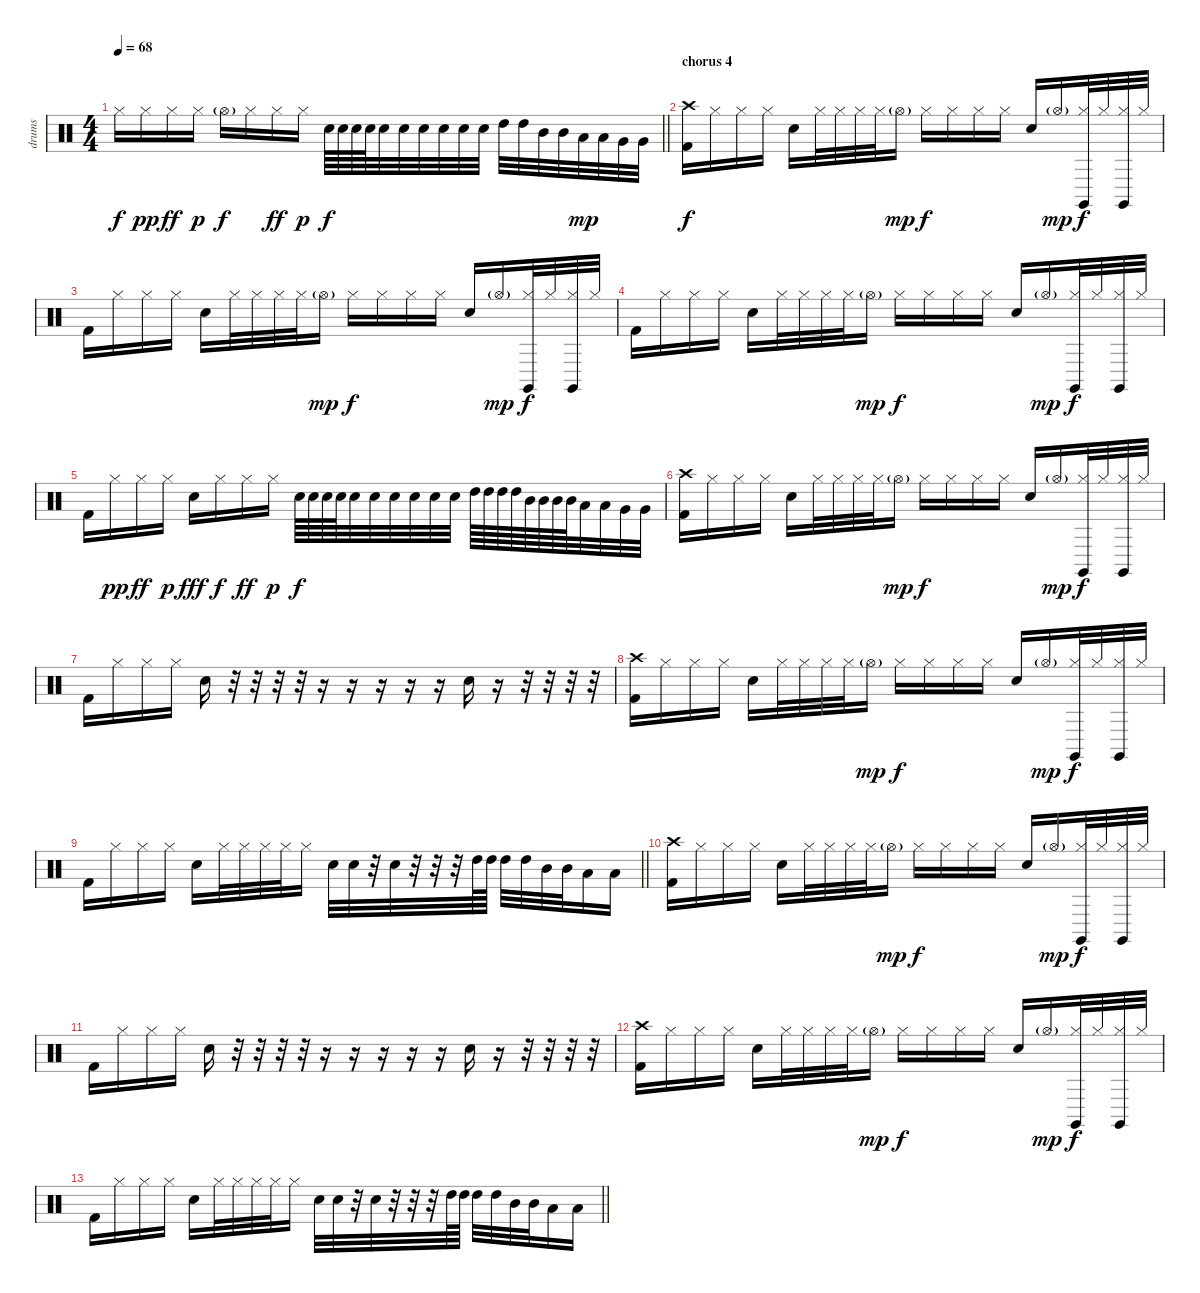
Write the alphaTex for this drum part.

\track ("drums" "drums") {instrument percussion}
\staff {score}
\articulation defaults
\ts (4 4)
\tempo 68
\clef neutral
\barLineRight lightlight
\ks c "Hi-Hat (closed)".16{dy f} "Hi-Hat (closed)".16{dy pp} "Hi-Hat (closed)".16{dy ff} "Hi-Hat (closed)".16{dy p} "Hi-Hat (open)"{g}.16{dy f} "Hi-Hat (closed)".16 "Hi-Hat (closed)".16{dy ff} "Hi-Hat (closed)".16{dy p} "Electric Snare (hit)".64{dy f} "Electric Snare (hit)".64 "Electric Snare (hit)".64 "Electric Snare (hit)".64 "Electric Snare (hit)".32 "Electric Snare (hit)".32 "Electric Snare (hit)".32 "Electric Snare (hit)".32 "Electric Snare (hit)".32 "Electric Snare (hit)".32 "High Tom (hit)".32 "High Tom (hit)".32 "Mid Tom (hit)".32 "Mid Tom (hit)".32 "Low Tom (hit)".32{dy mp} "Low Tom (hit)".32 "Very Low Tom (hit)".32 "Very Low Tom (hit)".32
|
\section ("" "chorus 4 ")
("Kick (hit) 2" "Crash high (hit)").16{dy f} "Hi-Hat (closed)".16 "Hi-Hat (closed)".16 "Hi-Hat (closed)".16 "Electric Snare (hit)".16 "Hi-Hat (closed)".32 "Hi-Hat (closed)".32 "Hi-Hat (closed)".32 "Hi-Hat (closed)".32 "Hi-Hat (open)"{g}.16{dy mp} "Hi-Hat (closed)".16{dy f} "Hi-Hat (closed)".16 "Hi-Hat (closed)".16 "Hi-Hat (closed)".16 "Electric Snare (hit)".16 "Hi-Hat (open)"{g}.16{dy mp} ("Hi-Hat (closed)" "Claves (hit)").32{dy f} "Hi-Hat (closed)".32 ("Hi-Hat (closed)" "Claves (hit)").32 "Hi-Hat (closed)".32 |
"Kick (hit) 2".16 "Hi-Hat (closed)".16 "Hi-Hat (closed)".16 "Hi-Hat (closed)".16 "Electric Snare (hit)".16 "Hi-Hat (closed)".32 "Hi-Hat (closed)".32 "Hi-Hat (closed)".32 "Hi-Hat (closed)".32 "Hi-Hat (open)"{g}.16{dy mp} "Hi-Hat (closed)".16{dy f} "Hi-Hat (closed)".16 "Hi-Hat (closed)".16 "Hi-Hat (closed)".16 "Electric Snare (hit)".16 "Hi-Hat (open)"{g}.16{dy mp} ("Hi-Hat (closed)" "Claves (hit)").32{dy f} "Hi-Hat (closed)".32 ("Hi-Hat (closed)" "Claves (hit)").32 "Hi-Hat (closed)".32 |
"Kick (hit) 2".16 "Hi-Hat (closed)".16 "Hi-Hat (closed)".16 "Hi-Hat (closed)".16 "Electric Snare (hit)".16 "Hi-Hat (closed)".32 "Hi-Hat (closed)".32 "Hi-Hat (closed)".32 "Hi-Hat (closed)".32 "Hi-Hat (open)"{g}.16{dy mp} "Hi-Hat (closed)".16{dy f} "Hi-Hat (closed)".16 "Hi-Hat (closed)".16 "Hi-Hat (closed)".16 "Electric Snare (hit)".16 "Hi-Hat (open)"{g}.16{dy mp} ("Hi-Hat (closed)" "Claves (hit)").32{dy f} "Hi-Hat (closed)".32 ("Hi-Hat (closed)" "Claves (hit)").32 "Hi-Hat (closed)".32 |
"Kick (hit) 2".16 "Hi-Hat (closed)".16{dy pp} "Hi-Hat (closed)".16{dy ff} "Hi-Hat (closed)".16{dy p} "Electric Snare (hit)".16{dy fff} "Hi-Hat (closed)".16{dy f} "Hi-Hat (closed)".16{dy ff} "Hi-Hat (closed)".16{dy p} "Electric Snare (hit)".64{dy f} "Electric Snare (hit)".64 "Electric Snare (hit)".64 "Electric Snare (hit)".64 "Electric Snare (hit)".32 "Electric Snare (hit)".32 "Electric Snare (hit)".32 "Electric Snare (hit)".32 "Electric Snare (hit)".32 "Electric Snare (hit)".32 "High Tom (hit)".64 "High Tom (hit)".64 "High Tom (hit)".64 "High Tom (hit)".64 "Mid Tom (hit)".64 "Mid Tom (hit)".64 "Mid Tom (hit)".64 "Mid Tom (hit)".64 "Low Tom (hit)".32 "Low Tom (hit)".32 "Very Low Tom (hit)".32 "Very Low Tom (hit)".32 |
("Kick (hit) 2" "Crash high (hit)").16 "Hi-Hat (closed)".16 "Hi-Hat (closed)".16 "Hi-Hat (closed)".16 "Electric Snare (hit)".16 "Hi-Hat (closed)".32 "Hi-Hat (closed)".32 "Hi-Hat (closed)".32 "Hi-Hat (closed)".32 "Hi-Hat (open)"{g}.16{dy mp} "Hi-Hat (closed)".16{dy f} "Hi-Hat (closed)".16 "Hi-Hat (closed)".16 "Hi-Hat (closed)".16 "Electric Snare (hit)".16 "Hi-Hat (open)"{g}.16{dy mp} ("Hi-Hat (closed)" "Claves (hit)").32{dy f} "Hi-Hat (closed)".32 ("Hi-Hat (closed)" "Claves (hit)").32 "Hi-Hat (closed)".32 |
"Kick (hit) 2".16 "Hi-Hat (closed)".16 "Hi-Hat (closed)".16 "Hi-Hat (closed)".16 "Electric Snare (hit)".16 r.32 r.32 r.32 r.32 r.16 r.16 r.16 r.16 r.16 "Electric Snare (hit)".16 r.16 r.32 r.32 r.32 r.32 |
("Kick (hit) 2" "Crash high (hit)").16 "Hi-Hat (closed)".16 "Hi-Hat (closed)".16 "Hi-Hat (closed)".16 "Electric Snare (hit)".16 "Hi-Hat (closed)".32 "Hi-Hat (closed)".32 "Hi-Hat (closed)".32 "Hi-Hat (closed)".32 "Hi-Hat (open)"{g}.16{dy mp} "Hi-Hat (closed)".16{dy f} "Hi-Hat (closed)".16 "Hi-Hat (closed)".16 "Hi-Hat (closed)".16 "Electric Snare (hit)".16 "Hi-Hat (open)"{g}.16{dy mp} ("Hi-Hat (closed)" "Claves (hit)").32{dy f} "Hi-Hat (closed)".32 ("Hi-Hat (closed)" "Claves (hit)").32 "Hi-Hat (closed)".32 |
\barLineRight lightlight "Kick (hit) 2".16 "Hi-Hat (closed)".16 "Hi-Hat (closed)".16 "Hi-Hat (closed)".16 "Electric Snare (hit)".16 "Hi-Hat (closed)".32 "Hi-Hat (closed)".32 "Hi-Hat (closed)".32 "Hi-Hat (closed)".32 "Hi-Hat (closed)".16 "Electric Snare (hit)".32 "Electric Snare (hit)".32
r.32 "Electric Snare (hit)".32 r.32 r.32 r.32 "High Tom (hit)".64 "High Tom (hit)".64 "High Tom (hit)".32 "High Tom (hit)".32 "Mid Tom (hit)".32 "Mid Tom (hit)".32 "Low Tom (hit)".16 "Low Tom (hit)".16 |
("Kick (hit) 2" "Crash high (hit)").16 "Hi-Hat (closed)".16 "Hi-Hat (closed)".16 "Hi-Hat (closed)".16 "Electric Snare (hit)".16 "Hi-Hat (closed)".32 "Hi-Hat (closed)".32 "Hi-Hat (closed)".32 "Hi-Hat (closed)".32 "Hi-Hat (open)"{g}.16{dy mp} "Hi-Hat (closed)".16{dy f} "Hi-Hat (closed)".16 "Hi-Hat (closed)".16 "Hi-Hat (closed)".16 "Electric Snare (hit)".16 "Hi-Hat (open)"{g}.16{dy mp} ("Hi-Hat (closed)" "Claves (hit)").32{dy f} "Hi-Hat (closed)".32 ("Hi-Hat (closed)" "Claves (hit)").32 "Hi-Hat (closed)".32 |
"Kick (hit) 2".16 "Hi-Hat (closed)".16 "Hi-Hat (closed)".16 "Hi-Hat (closed)".16 "Electric Snare (hit)".16 r.32 r.32 r.32 r.32 r.16 r.16 r.16 r.16 r.16 "Electric Snare (hit)".16 r.16 r.32 r.32 r.32 r.32 |
("Kick (hit) 2" "Crash high (hit)").16 "Hi-Hat (closed)".16 "Hi-Hat (closed)".16 "Hi-Hat (closed)".16 "Electric Snare (hit)".16 "Hi-Hat (closed)".32 "Hi-Hat (closed)".32 "Hi-Hat (closed)".32 "Hi-Hat (closed)".32 "Hi-Hat (open)"{g}.16{dy mp} "Hi-Hat (closed)".16{dy f} "Hi-Hat (closed)".16 "Hi-Hat (closed)".16 "Hi-Hat (closed)".16 "Electric Snare (hit)".16 "Hi-Hat (open)"{g}.16{dy mp} ("Hi-Hat (closed)" "Claves (hit)").32{dy f} "Hi-Hat (closed)".32 ("Hi-Hat (closed)" "Claves (hit)").32 "Hi-Hat (closed)".32 |
\barLineRight lightlight "Kick (hit) 2".16 "Hi-Hat (closed)".16 "Hi-Hat (closed)".16 "Hi-Hat (closed)".16 "Electric Snare (hit)".16 "Hi-Hat (closed)".32 "Hi-Hat (closed)".32 "Hi-Hat (closed)".32 "Hi-Hat (closed)".32 "Hi-Hat (closed)".16 "Electric Snare (hit)".32 "Electric Snare (hit)".32
r.32 "Electric Snare (hit)".32 r.32 r.32 r.32 "High Tom (hit)".64 "High Tom (hit)".64 "High Tom (hit)".32 "High Tom (hit)".32 "Mid Tom (hit)".32 "Mid Tom (hit)".32 "Low Tom (hit)".16 "Low Tom (hit)".16
